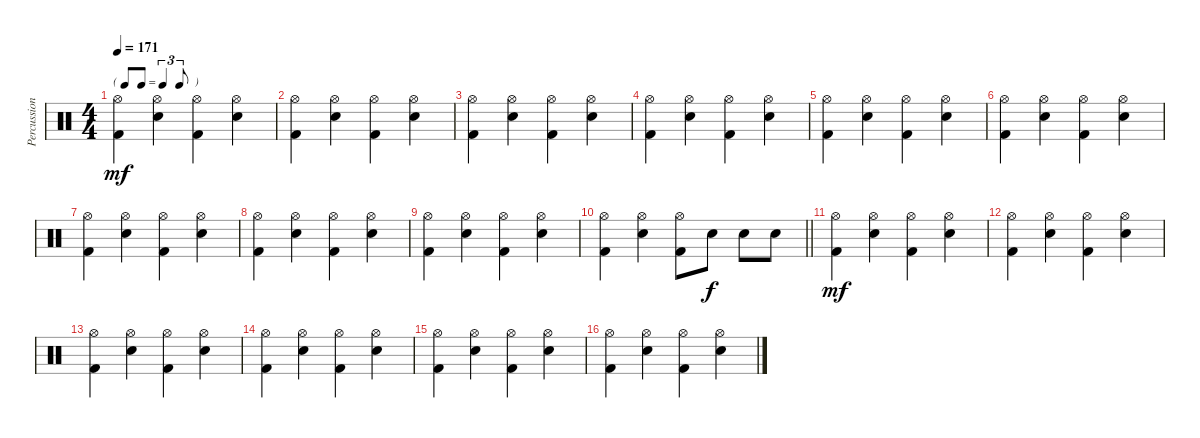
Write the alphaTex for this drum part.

\track ("Percussion" "Percussion") {instrument percussion}
\staff {score}
\articulation defaults
\ts (4 4)
\tf triplet8th
\tempo 171
\clef neutral
\ks c
("Hi-Hat (open)" "Kick (hit) 2").4{dy mf} ("Hi-Hat (open)" "Snare (hit) 2").4 ("Hi-Hat (open)" "Kick (hit) 2").4 ("Hi-Hat (open)" "Snare (hit) 2").4 |
("Hi-Hat (open)" "Kick (hit) 2").4 ("Hi-Hat (open)" "Snare (hit) 2").4 ("Hi-Hat (open)" "Kick (hit) 2").4 ("Hi-Hat (open)" "Snare (hit) 2").4 |
("Hi-Hat (open)" "Kick (hit) 2").4 ("Hi-Hat (open)" "Snare (hit) 2").4 ("Hi-Hat (open)" "Kick (hit) 2").4 ("Hi-Hat (open)" "Snare (hit) 2").4 |
("Hi-Hat (open)" "Kick (hit) 2").4 ("Hi-Hat (open)" "Snare (hit) 2").4 ("Hi-Hat (open)" "Kick (hit) 2").4 ("Hi-Hat (open)" "Snare (hit) 2").4 |
("Hi-Hat (open)" "Kick (hit) 2").4 ("Hi-Hat (open)" "Snare (hit) 2").4 ("Hi-Hat (open)" "Kick (hit) 2").4 ("Hi-Hat (open)" "Snare (hit) 2").4 |
("Hi-Hat (open)" "Kick (hit) 2").4 ("Hi-Hat (open)" "Snare (hit) 2").4 ("Hi-Hat (open)" "Kick (hit) 2").4 ("Hi-Hat (open)" "Snare (hit) 2").4 |
("Hi-Hat (open)" "Kick (hit) 2").4 ("Hi-Hat (open)" "Snare (hit) 2").4 ("Hi-Hat (open)" "Kick (hit) 2").4 ("Hi-Hat (open)" "Snare (hit) 2").4 |
("Hi-Hat (open)" "Kick (hit) 2").4 ("Hi-Hat (open)" "Snare (hit) 2").4 ("Hi-Hat (open)" "Kick (hit) 2").4 ("Hi-Hat (open)" "Snare (hit) 2").4 |
("Hi-Hat (open)" "Kick (hit) 2").4 ("Hi-Hat (open)" "Snare (hit) 2").4 ("Hi-Hat (open)" "Kick (hit) 2").4 ("Hi-Hat (open)" "Snare (hit) 2").4 |
\barLineRight lightlight
("Hi-Hat (open)" "Kick (hit) 2").4 ("Hi-Hat (open)" "Snare (hit) 2").4 ("Hi-Hat (open)" "Kick (hit) 2").8 "Snare (hit) 2".8{dy f} "Snare (hit) 2".8 "Snare (hit) 2".8 |
("Hi-Hat (open)" "Kick (hit) 2").4{dy mf} ("Hi-Hat (open)" "Snare (hit) 2").4 ("Hi-Hat (open)" "Kick (hit) 2").4 ("Hi-Hat (open)" "Snare (hit) 2").4 |
("Hi-Hat (open)" "Kick (hit) 2").4 ("Hi-Hat (open)" "Snare (hit) 2").4 ("Hi-Hat (open)" "Kick (hit) 2").4 ("Hi-Hat (open)" "Snare (hit) 2").4 |
("Hi-Hat (open)" "Kick (hit) 2").4 ("Hi-Hat (open)" "Snare (hit) 2").4 ("Hi-Hat (open)" "Kick (hit) 2").4 ("Hi-Hat (open)" "Snare (hit) 2").4 |
("Hi-Hat (open)" "Kick (hit) 2").4 ("Hi-Hat (open)" "Snare (hit) 2").4 ("Hi-Hat (open)" "Kick (hit) 2").4 ("Hi-Hat (open)" "Snare (hit) 2").4 |
("Hi-Hat (open)" "Kick (hit) 2").4 ("Hi-Hat (open)" "Snare (hit) 2").4 ("Hi-Hat (open)" "Kick (hit) 2").4 ("Hi-Hat (open)" "Snare (hit) 2").4 |
("Hi-Hat (open)" "Kick (hit) 2").4 ("Hi-Hat (open)" "Snare (hit) 2").4 ("Hi-Hat (open)" "Kick (hit) 2").4 ("Hi-Hat (open)" "Snare (hit) 2").4
